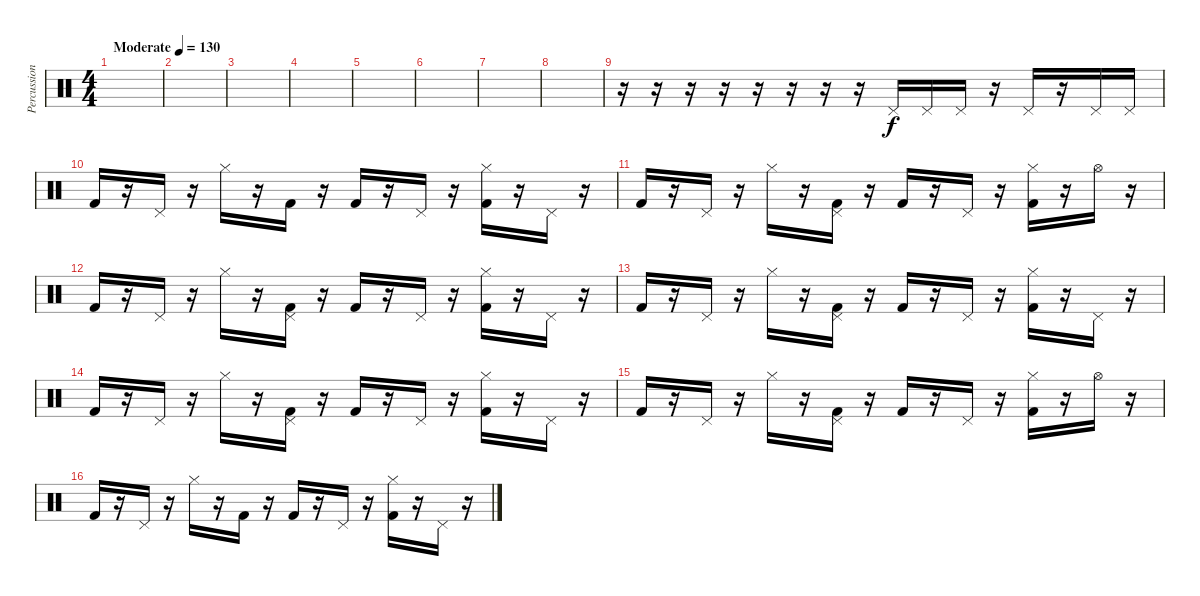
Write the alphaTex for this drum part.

\track ("Percussion" "Percussion") {instrument percussion}
\staff {score}
\articulation defaults
\ts (4 4)
\tempo (130 "Moderate")
\clef neutral
\ks c
|
|
|
|
|
|
|
|
r.16 r.16 r.16 r.16 r.16 r.16 r.16 r.16 "Pedal Hi-Hat (hit)".16 "Pedal Hi-Hat (hit)".16 "Pedal Hi-Hat (hit)".16 r.16 "Pedal Hi-Hat (hit)".16 r.16 "Pedal Hi-Hat (hit)".16 "Pedal Hi-Hat (hit)".16 |
"Kick (hit) 2".16 r.16 "Pedal Hi-Hat (hit)".16 r.16 "Hi-Hat (closed)".16 r.16 "Kick (hit) 2".16 r.16 "Kick (hit) 2".16 r.16 "Pedal Hi-Hat (hit)".16 r.16 ("Kick (hit) 2" "Hi-Hat (closed)").16 r.16 "Pedal Hi-Hat (hit)".16 r.16 |
"Kick (hit) 2".16 r.16 "Pedal Hi-Hat (hit)".16 r.16 "Hi-Hat (closed)".16 r.16 ("Kick (hit) 2" "Pedal Hi-Hat (hit)").16 r.16 "Kick (hit) 2".16 r.16 "Pedal Hi-Hat (hit)".16 r.16 ("Kick (hit) 2" "Hi-Hat (closed)").16 r.16 "Hi-Hat (open)".16 r.16 |
"Kick (hit) 2".16 r.16 "Pedal Hi-Hat (hit)".16 r.16 "Hi-Hat (closed)".16 r.16 ("Kick (hit) 2" "Pedal Hi-Hat (hit)").16 r.16 "Kick (hit) 2".16 r.16 "Pedal Hi-Hat (hit)".16 r.16 ("Kick (hit) 2" "Hi-Hat (closed)").16 r.16 "Pedal Hi-Hat (hit)".16 r.16 |
"Kick (hit) 2".16 r.16 "Pedal Hi-Hat (hit)".16 r.16 "Hi-Hat (closed)".16 r.16 ("Kick (hit) 2" "Pedal Hi-Hat (hit)").16 r.16 "Kick (hit) 2".16 r.16 "Pedal Hi-Hat (hit)".16 r.16 ("Kick (hit) 2" "Hi-Hat (closed)").16 r.16 "Pedal Hi-Hat (hit)".16 r.16 |
"Kick (hit) 2".16 r.16 "Pedal Hi-Hat (hit)".16 r.16 "Hi-Hat (closed)".16 r.16 ("Kick (hit) 2" "Pedal Hi-Hat (hit)").16 r.16 "Kick (hit) 2".16 r.16 "Pedal Hi-Hat (hit)".16 r.16 ("Kick (hit) 2" "Hi-Hat (closed)").16 r.16 "Pedal Hi-Hat (hit)".16 r.16 |
"Kick (hit) 2".16 r.16 "Pedal Hi-Hat (hit)".16 r.16 "Hi-Hat (closed)".16 r.16 ("Kick (hit) 2" "Pedal Hi-Hat (hit)").16 r.16 "Kick (hit) 2".16 r.16 "Pedal Hi-Hat (hit)".16 r.16 ("Kick (hit) 2" "Hi-Hat (closed)").16 r.16 "Hi-Hat (open)".16 r.16 |
"Kick (hit) 2".16 r.16 "Pedal Hi-Hat (hit)".16 r.16 "Hi-Hat (closed)".16 r.16 "Kick (hit) 2".16 r.16 "Kick (hit) 2".16 r.16 "Pedal Hi-Hat (hit)".16 r.16 ("Kick (hit) 2" "Hi-Hat (closed)").16 r.16 "Pedal Hi-Hat (hit)".16 r.16
